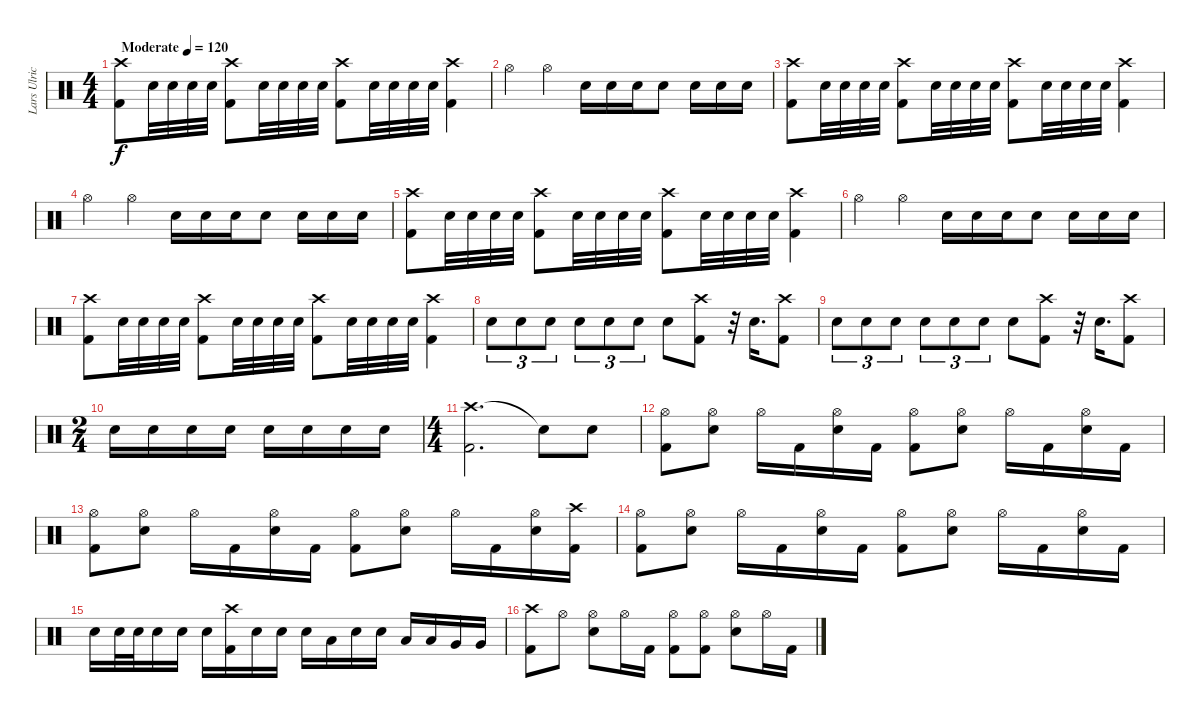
\track ("Lars Ulrich" "Lars Ulric") {instrument percussion}
\staff {score}
\articulation defaults
\ts (4 4)
\tempo (120 "Moderate")
\clef neutral
\ks c
("Kick (hit) 2" "Crash high (hit)").8{dy f} "Electric Snare (hit)".32 "Electric Snare (hit)".32 "Electric Snare (hit)".32 "Electric Snare (hit)".32 ("Kick (hit) 2" "Crash high (hit)").8 "Electric Snare (hit)".32 "Electric Snare (hit)".32 "Electric Snare (hit)".32 "Electric Snare (hit)".32 ("Kick (hit) 2" "Crash high (hit)").8 "Electric Snare (hit)".32 "Electric Snare (hit)".32 "Electric Snare (hit)".32 "Electric Snare (hit)".32 ("Kick (hit) 2" "Crash high (hit)").4 |
"Hi-Hat (open)".4 "Hi-Hat (open)".4 "Electric Snare (hit)".16 "Electric Snare (hit)".16 "Electric Snare (hit)".16 "Electric Snare (hit)".8 "Electric Snare (hit)".16 "Electric Snare (hit)".16 "Electric Snare (hit)".16 |
("Kick (hit) 2" "Crash high (hit)").8 "Electric Snare (hit)".32 "Electric Snare (hit)".32 "Electric Snare (hit)".32 "Electric Snare (hit)".32 ("Kick (hit) 2" "Crash high (hit)").8 "Electric Snare (hit)".32 "Electric Snare (hit)".32 "Electric Snare (hit)".32 "Electric Snare (hit)".32 ("Kick (hit) 2" "Crash high (hit)").8 "Electric Snare (hit)".32 "Electric Snare (hit)".32 "Electric Snare (hit)".32 "Electric Snare (hit)".32 ("Kick (hit) 2" "Crash high (hit)").4 |
"Hi-Hat (open)".4 "Hi-Hat (open)".4 "Electric Snare (hit)".16 "Electric Snare (hit)".16 "Electric Snare (hit)".16 "Electric Snare (hit)".8 "Electric Snare (hit)".16 "Electric Snare (hit)".16 "Electric Snare (hit)".16 |
("Kick (hit) 2" "Crash high (hit)").8 "Electric Snare (hit)".32 "Electric Snare (hit)".32 "Electric Snare (hit)".32 "Electric Snare (hit)".32 ("Kick (hit) 2" "Crash high (hit)").8 "Electric Snare (hit)".32 "Electric Snare (hit)".32 "Electric Snare (hit)".32 "Electric Snare (hit)".32 ("Kick (hit) 2" "Crash high (hit)").8 "Electric Snare (hit)".32 "Electric Snare (hit)".32 "Electric Snare (hit)".32 "Electric Snare (hit)".32 ("Kick (hit) 2" "Crash high (hit)").4 |
"Hi-Hat (open)".4 "Hi-Hat (open)".4 "Electric Snare (hit)".16 "Electric Snare (hit)".16 "Electric Snare (hit)".16 "Electric Snare (hit)".8 "Electric Snare (hit)".16 "Electric Snare (hit)".16 "Electric Snare (hit)".16 |
("Kick (hit) 2" "Crash high (hit)").8 "Electric Snare (hit)".32 "Electric Snare (hit)".32 "Electric Snare (hit)".32 "Electric Snare (hit)".32 ("Kick (hit) 2" "Crash high (hit)").8 "Electric Snare (hit)".32 "Electric Snare (hit)".32 "Electric Snare (hit)".32 "Electric Snare (hit)".32 ("Kick (hit) 2" "Crash high (hit)").8 "Electric Snare (hit)".32 "Electric Snare (hit)".32 "Electric Snare (hit)".32 "Electric Snare (hit)".32 ("Kick (hit) 2" "Crash high (hit)").4 |
"Electric Snare (hit)".8{tu (3 2)} "Electric Snare (hit)".8{tu (3 2)} "Electric Snare (hit)".8{tu (3 2)} "Electric Snare (hit)".8{tu (3 2)} "Electric Snare (hit)".8{tu (3 2)} "Electric Snare (hit)".8{tu (3 2)} "Electric Snare (hit)".8 ("Kick (hit) 2" "Crash high (hit)").8 r.32 "Electric Snare (hit)".16{d} ("Kick (hit) 2" "Crash high (hit)").8 |
"Electric Snare (hit)".8{tu (3 2)} "Electric Snare (hit)".8{tu (3 2)} "Electric Snare (hit)".8{tu (3 2)} "Electric Snare (hit)".8{tu (3 2)} "Electric Snare (hit)".8{tu (3 2)} "Electric Snare (hit)".8{tu (3 2)} "Electric Snare (hit)".8 ("Kick (hit) 2" "Crash high (hit)").8 r.32 "Electric Snare (hit)".16{d} ("Kick (hit) 2" "Crash high (hit)").8 |
\ts (2 4)
"Electric Snare (hit)".16 "Electric Snare (hit)".16 "Electric Snare (hit)".16 "Electric Snare (hit)".16 "Electric Snare (hit)".16 "Electric Snare (hit)".16 "Electric Snare (hit)".16 "Electric Snare (hit)".16 |
\ts (4 4)
("Crash high (hit)" "Kick (hit) 2").2{d} "Snare (hit)"{t}.8 "Electric Snare (hit)".8 |
("Hi-Hat (open)" "Kick (hit) 2").8 ("Hi-Hat (open)" "Electric Snare (hit)").8 "Hi-Hat (open)".16 "Kick (hit) 2".16 ("Hi-Hat (open)" "Electric Snare (hit)").16 "Kick (hit) 2".16 ("Hi-Hat (open)" "Kick (hit) 2").8 ("Hi-Hat (open)" "Electric Snare (hit)").8 "Hi-Hat (open)".16 "Kick (hit) 2".16 ("Hi-Hat (open)" "Electric Snare (hit)").16 "Kick (hit) 2".16 |
("Hi-Hat (open)" "Kick (hit) 2").8 ("Hi-Hat (open)" "Electric Snare (hit)").8 "Hi-Hat (open)".16 "Kick (hit) 2".16 ("Hi-Hat (open)" "Electric Snare (hit)").16 "Kick (hit) 2".16 ("Hi-Hat (open)" "Kick (hit) 2").8 ("Hi-Hat (open)" "Electric Snare (hit)").8 "Hi-Hat (open)".16 "Kick (hit) 2".16 ("Hi-Hat (open)" "Electric Snare (hit)").16 ("Crash high (hit)" "Kick (hit) 2").16 |
("Hi-Hat (open)" "Kick (hit) 2").8 ("Hi-Hat (open)" "Electric Snare (hit)").8 "Hi-Hat (open)".16 "Kick (hit) 2".16 ("Hi-Hat (open)" "Electric Snare (hit)").16 "Kick (hit) 2".16 ("Hi-Hat (open)" "Kick (hit) 2").8 ("Hi-Hat (open)" "Electric Snare (hit)").8 "Hi-Hat (open)".16 "Kick (hit) 2".16 ("Hi-Hat (open)" "Electric Snare (hit)").16 "Kick (hit) 2".16 |
"Electric Snare (hit)".16 "Electric Snare (hit)".32 "Electric Snare (hit)".32 "Electric Snare (hit)".16 "Electric Snare (hit)".16 "Electric Snare (hit)".16 ("Crash high (hit)" "Kick (hit) 2").16 "Electric Snare (hit)".16 "Electric Snare (hit)".16 "Electric Snare (hit)".16 "Low Tom (hit)".16 "Electric Snare (hit)".16 "Electric Snare (hit)".16 "Low Tom (hit)".16 "Low Tom (hit)".16 "Very Low Tom (hit)".16 "Very Low Tom (hit)".16 |
("Crash high (hit)" "Kick (hit) 2").8 "Hi-Hat (open)".8 ("Hi-Hat (open)" "Electric Snare (hit)").8 "Hi-Hat (open)".16 "Kick (hit) 2".16 ("Hi-Hat (open)" "Kick (hit) 2").8 ("Hi-Hat (open)" "Kick (hit) 2").8 ("Hi-Hat (open)" "Electric Snare (hit)").8 "Hi-Hat (open)".16 "Kick (hit) 2".16
